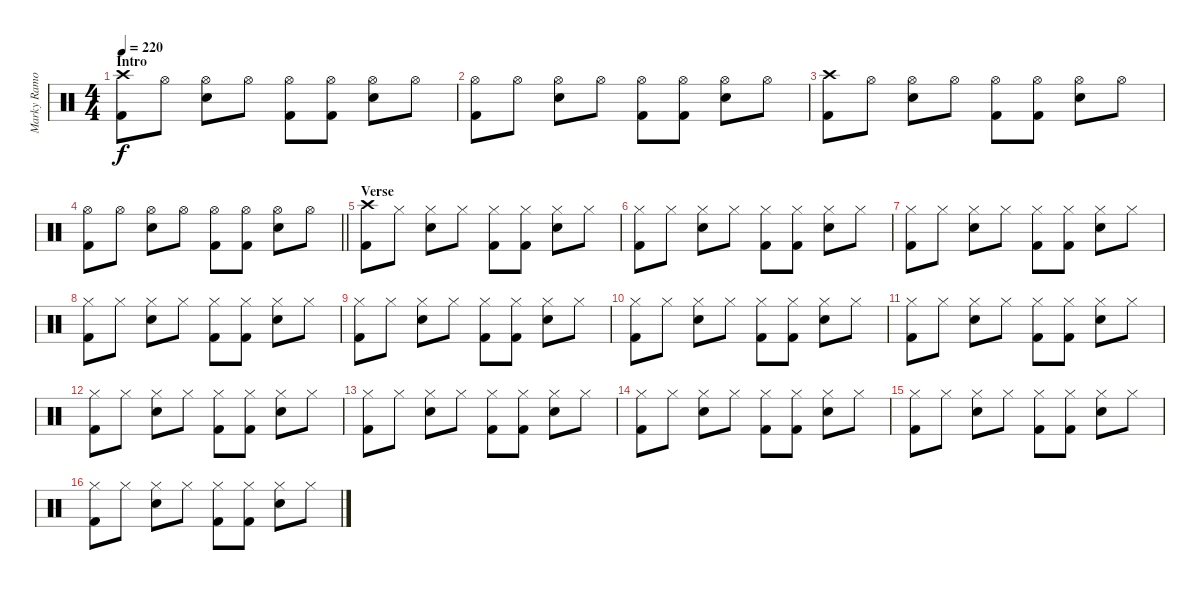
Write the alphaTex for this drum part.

\track ("Marky Ramone" "Marky Ramo") {instrument percussion}
\staff {score}
\articulation defaults
\ts (4 4)
\section ("" "Intro")
\tempo 220
\clef neutral
\ks c
("Crash high (hit)" "Kick (hit) 2").8{dy f} "Hi-Hat (open)".8 ("Hi-Hat (open)" "Electric Snare (hit)").8 "Hi-Hat (open)".8 ("Hi-Hat (open)" "Kick (hit) 2").8 ("Hi-Hat (open)" "Kick (hit) 2").8 ("Hi-Hat (open)" "Electric Snare (hit)").8 "Hi-Hat (open)".8 |
("Hi-Hat (open)" "Kick (hit) 2").8 "Hi-Hat (open)".8 ("Hi-Hat (open)" "Electric Snare (hit)").8 "Hi-Hat (open)".8 ("Hi-Hat (open)" "Kick (hit) 2").8 ("Hi-Hat (open)" "Kick (hit) 2").8 ("Hi-Hat (open)" "Electric Snare (hit)").8 "Hi-Hat (open)".8 |
("Crash high (hit)" "Kick (hit) 2").8 "Hi-Hat (open)".8 ("Hi-Hat (open)" "Electric Snare (hit)").8 "Hi-Hat (open)".8 ("Hi-Hat (open)" "Kick (hit) 2").8 ("Hi-Hat (open)" "Kick (hit) 2").8 ("Hi-Hat (open)" "Electric Snare (hit)").8 "Hi-Hat (open)".8 |
\barLineRight lightlight
("Hi-Hat (open)" "Kick (hit) 2").8 "Hi-Hat (open)".8 ("Hi-Hat (open)" "Electric Snare (hit)").8 "Hi-Hat (open)".8 ("Hi-Hat (open)" "Kick (hit) 2").8 ("Hi-Hat (open)" "Kick (hit) 2").8 ("Hi-Hat (open)" "Electric Snare (hit)").8 "Hi-Hat (open)".8 |
\section ("" "Verse")
("Crash high (hit)" "Kick (hit) 2").8 "Hi-Hat (closed)".8 ("Hi-Hat (closed)" "Electric Snare (hit)").8 "Hi-Hat (closed)".8 ("Hi-Hat (closed)" "Kick (hit) 2").8 ("Hi-Hat (closed)" "Kick (hit) 2").8 ("Hi-Hat (closed)" "Electric Snare (hit)").8 "Hi-Hat (closed)".8 |
("Hi-Hat (closed)" "Kick (hit) 2").8 "Hi-Hat (closed)".8 ("Hi-Hat (closed)" "Electric Snare (hit)").8 "Hi-Hat (closed)".8 ("Hi-Hat (closed)" "Kick (hit) 2").8 ("Hi-Hat (closed)" "Kick (hit) 2").8 ("Hi-Hat (closed)" "Electric Snare (hit)").8 "Hi-Hat (closed)".8 |
("Hi-Hat (closed)" "Kick (hit) 2").8 "Hi-Hat (closed)".8 ("Hi-Hat (closed)" "Electric Snare (hit)").8 "Hi-Hat (closed)".8 ("Hi-Hat (closed)" "Kick (hit) 2").8 ("Hi-Hat (closed)" "Kick (hit) 2").8 ("Hi-Hat (closed)" "Electric Snare (hit)").8 "Hi-Hat (closed)".8 |
("Hi-Hat (closed)" "Kick (hit) 2").8 "Hi-Hat (closed)".8 ("Hi-Hat (closed)" "Electric Snare (hit)").8 "Hi-Hat (closed)".8 ("Hi-Hat (closed)" "Kick (hit) 2").8 ("Hi-Hat (closed)" "Kick (hit) 2").8 ("Hi-Hat (closed)" "Electric Snare (hit)").8 "Hi-Hat (closed)".8 |
("Hi-Hat (closed)" "Kick (hit) 2").8 "Hi-Hat (closed)".8 ("Hi-Hat (closed)" "Electric Snare (hit)").8 "Hi-Hat (closed)".8 ("Hi-Hat (closed)" "Kick (hit) 2").8 ("Hi-Hat (closed)" "Kick (hit) 2").8 ("Hi-Hat (closed)" "Electric Snare (hit)").8 "Hi-Hat (closed)".8 |
("Hi-Hat (closed)" "Kick (hit) 2").8 "Hi-Hat (closed)".8 ("Hi-Hat (closed)" "Electric Snare (hit)").8 "Hi-Hat (closed)".8 ("Hi-Hat (closed)" "Kick (hit) 2").8 ("Hi-Hat (closed)" "Kick (hit) 2").8 ("Hi-Hat (closed)" "Electric Snare (hit)").8 "Hi-Hat (closed)".8 |
("Hi-Hat (closed)" "Kick (hit) 2").8 "Hi-Hat (closed)".8 ("Hi-Hat (closed)" "Electric Snare (hit)").8 "Hi-Hat (closed)".8 ("Hi-Hat (closed)" "Kick (hit) 2").8 ("Hi-Hat (closed)" "Kick (hit) 2").8 ("Hi-Hat (closed)" "Electric Snare (hit)").8 "Hi-Hat (closed)".8 |
("Hi-Hat (closed)" "Kick (hit) 2").8 "Hi-Hat (closed)".8 ("Hi-Hat (closed)" "Electric Snare (hit)").8 "Hi-Hat (closed)".8 ("Hi-Hat (closed)" "Kick (hit) 2").8 ("Hi-Hat (closed)" "Kick (hit) 2").8 ("Hi-Hat (closed)" "Electric Snare (hit)").8 "Hi-Hat (closed)".8 |
("Hi-Hat (closed)" "Kick (hit) 2").8 "Hi-Hat (closed)".8 ("Hi-Hat (closed)" "Electric Snare (hit)").8 "Hi-Hat (closed)".8 ("Hi-Hat (closed)" "Kick (hit) 2").8 ("Hi-Hat (closed)" "Kick (hit) 2").8 ("Hi-Hat (closed)" "Electric Snare (hit)").8 "Hi-Hat (closed)".8 |
("Hi-Hat (closed)" "Kick (hit) 2").8 "Hi-Hat (closed)".8 ("Hi-Hat (closed)" "Electric Snare (hit)").8 "Hi-Hat (closed)".8 ("Hi-Hat (closed)" "Kick (hit) 2").8 ("Hi-Hat (closed)" "Kick (hit) 2").8 ("Hi-Hat (closed)" "Electric Snare (hit)").8 "Hi-Hat (closed)".8 |
("Hi-Hat (closed)" "Kick (hit) 2").8 "Hi-Hat (closed)".8 ("Hi-Hat (closed)" "Electric Snare (hit)").8 "Hi-Hat (closed)".8 ("Hi-Hat (closed)" "Kick (hit) 2").8 ("Hi-Hat (closed)" "Kick (hit) 2").8 ("Hi-Hat (closed)" "Electric Snare (hit)").8 "Hi-Hat (closed)".8 |
("Hi-Hat (closed)" "Kick (hit) 2").8 "Hi-Hat (closed)".8 ("Hi-Hat (closed)" "Electric Snare (hit)").8 "Hi-Hat (closed)".8 ("Hi-Hat (closed)" "Kick (hit) 2").8 ("Hi-Hat (closed)" "Kick (hit) 2").8 ("Hi-Hat (closed)" "Electric Snare (hit)").8 "Hi-Hat (closed)".8
